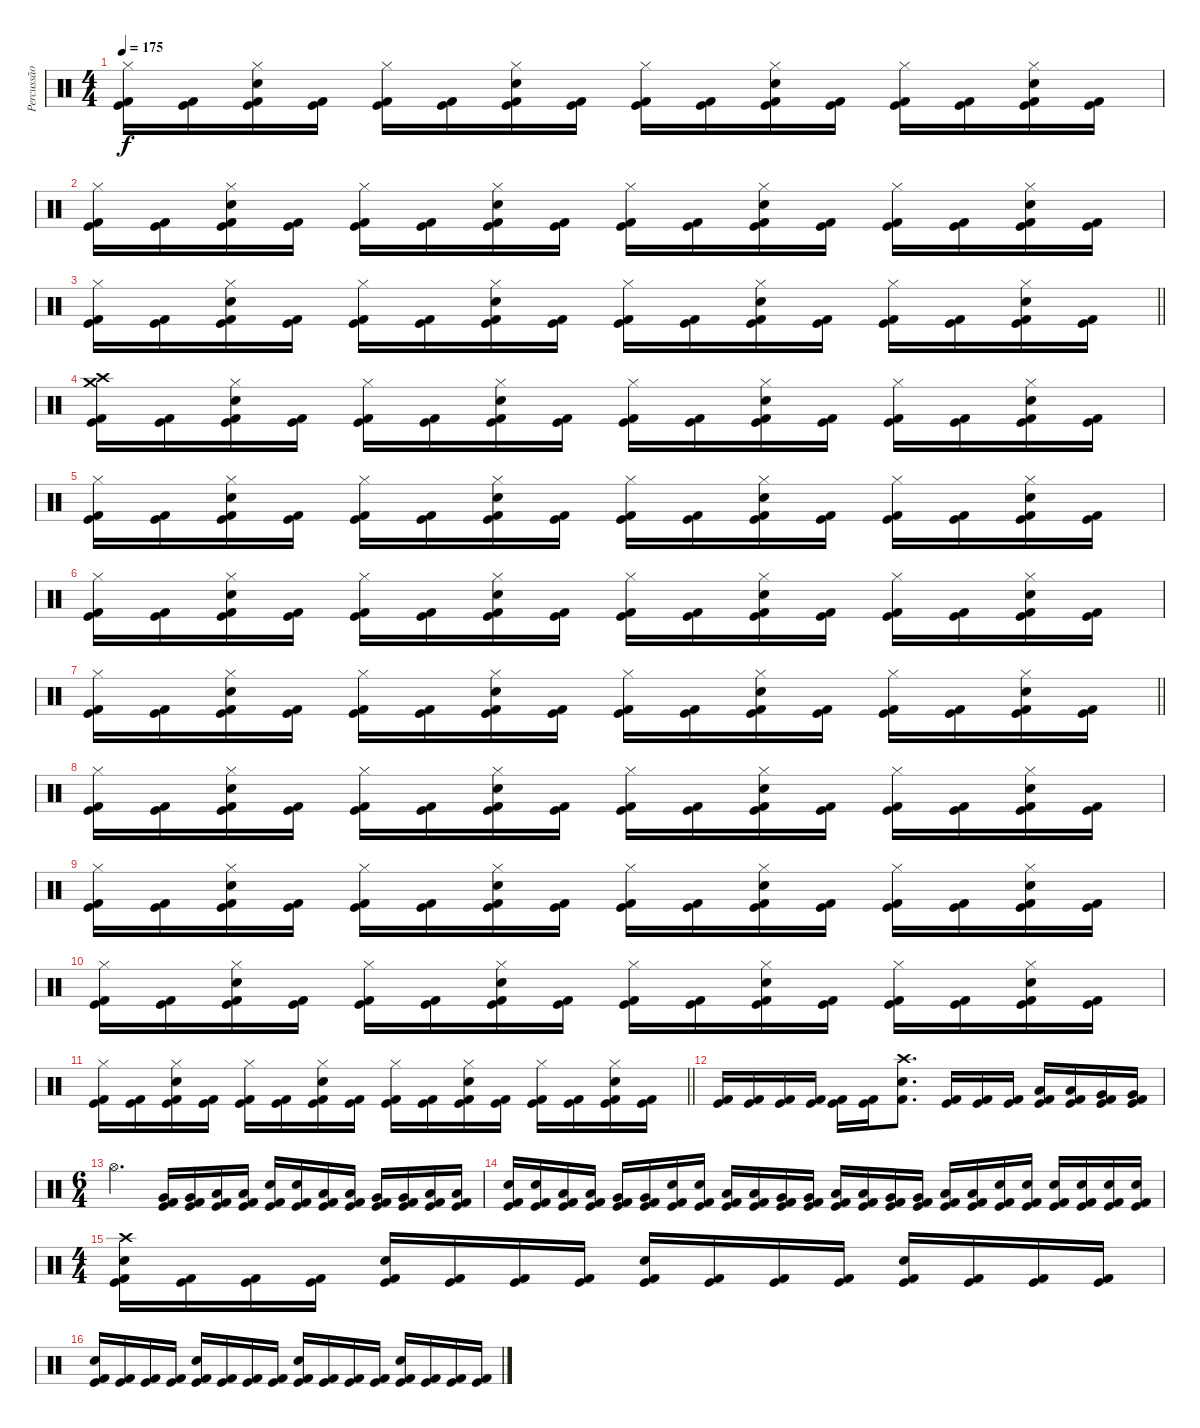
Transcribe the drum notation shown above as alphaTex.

\track ("Percussão" "Percussão") {instrument percussion}
\staff {score}
\articulation defaults
\ts (4 4)
\tempo 175
\clef neutral
\ks c
("Hi-Hat (closed)" "Kick (hit)" "Kick (hit) 2").16{dy f} ("Kick (hit)" "Kick (hit) 2").16 ("Hi-Hat (closed)" "Electric Snare (hit)" "Kick (hit)" "Kick (hit) 2").16 ("Kick (hit)" "Kick (hit) 2").16 ("Hi-Hat (closed)" "Kick (hit)" "Kick (hit) 2").16 ("Kick (hit)" "Kick (hit) 2").16 ("Hi-Hat (closed)" "Electric Snare (hit)" "Kick (hit)" "Kick (hit) 2").16 ("Kick (hit)" "Kick (hit) 2").16 ("Hi-Hat (closed)" "Kick (hit)" "Kick (hit) 2").16 ("Kick (hit)" "Kick (hit) 2").16 ("Hi-Hat (closed)" "Electric Snare (hit)" "Kick (hit)" "Kick (hit) 2").16 ("Kick (hit)" "Kick (hit) 2").16 ("Hi-Hat (closed)" "Kick (hit)" "Kick (hit) 2").16 ("Kick (hit)" "Kick (hit) 2").16 ("Hi-Hat (closed)" "Electric Snare (hit)" "Kick (hit)" "Kick (hit) 2").16 ("Kick (hit)" "Kick (hit) 2").16 |
("Hi-Hat (closed)" "Kick (hit)" "Kick (hit) 2").16 ("Kick (hit)" "Kick (hit) 2").16 ("Hi-Hat (closed)" "Electric Snare (hit)" "Kick (hit)" "Kick (hit) 2").16 ("Kick (hit)" "Kick (hit) 2").16 ("Hi-Hat (closed)" "Kick (hit)" "Kick (hit) 2").16 ("Kick (hit)" "Kick (hit) 2").16 ("Hi-Hat (closed)" "Electric Snare (hit)" "Kick (hit)" "Kick (hit) 2").16 ("Kick (hit)" "Kick (hit) 2").16 ("Hi-Hat (closed)" "Kick (hit)" "Kick (hit) 2").16 ("Kick (hit)" "Kick (hit) 2").16 ("Hi-Hat (closed)" "Electric Snare (hit)" "Kick (hit)" "Kick (hit) 2").16 ("Kick (hit)" "Kick (hit) 2").16 ("Hi-Hat (closed)" "Kick (hit)" "Kick (hit) 2").16 ("Kick (hit)" "Kick (hit) 2").16 ("Hi-Hat (closed)" "Electric Snare (hit)" "Kick (hit)" "Kick (hit) 2").16 ("Kick (hit)" "Kick (hit) 2").16 |
\barLineRight lightlight
("Hi-Hat (closed)" "Kick (hit)" "Kick (hit) 2").16 ("Kick (hit)" "Kick (hit) 2").16 ("Hi-Hat (closed)" "Electric Snare (hit)" "Kick (hit)" "Kick (hit) 2").16 ("Kick (hit)" "Kick (hit) 2").16 ("Hi-Hat (closed)" "Kick (hit)" "Kick (hit) 2").16 ("Kick (hit)" "Kick (hit) 2").16 ("Hi-Hat (closed)" "Electric Snare (hit)" "Kick (hit)" "Kick (hit) 2").16 ("Kick (hit)" "Kick (hit) 2").16 ("Hi-Hat (closed)" "Kick (hit)" "Kick (hit) 2").16 ("Kick (hit)" "Kick (hit) 2").16 ("Hi-Hat (closed)" "Electric Snare (hit)" "Kick (hit)" "Kick (hit) 2").16 ("Kick (hit)" "Kick (hit) 2").16 ("Hi-Hat (closed)" "Kick (hit)" "Kick (hit) 2").16 ("Kick (hit)" "Kick (hit) 2").16 ("Hi-Hat (closed)" "Electric Snare (hit)" "Kick (hit)" "Kick (hit) 2").16 ("Kick (hit)" "Kick (hit) 2").16 |
("Crash high (hit)" "Crash medium (hit)" "Kick (hit)" "Kick (hit) 2").16 ("Kick (hit)" "Kick (hit) 2").16 ("Hi-Hat (closed)" "Electric Snare (hit)" "Kick (hit)" "Kick (hit) 2").16 ("Kick (hit)" "Kick (hit) 2").16 ("Hi-Hat (closed)" "Kick (hit)" "Kick (hit) 2").16 ("Kick (hit)" "Kick (hit) 2").16 ("Hi-Hat (closed)" "Electric Snare (hit)" "Kick (hit)" "Kick (hit) 2").16 ("Kick (hit)" "Kick (hit) 2").16 ("Hi-Hat (closed)" "Kick (hit)" "Kick (hit) 2").16 ("Kick (hit)" "Kick (hit) 2").16 ("Hi-Hat (closed)" "Electric Snare (hit)" "Kick (hit)" "Kick (hit) 2").16 ("Kick (hit)" "Kick (hit) 2").16 ("Hi-Hat (closed)" "Kick (hit)" "Kick (hit) 2").16 ("Kick (hit)" "Kick (hit) 2").16 ("Hi-Hat (closed)" "Electric Snare (hit)" "Kick (hit)" "Kick (hit) 2").16 ("Kick (hit)" "Kick (hit) 2").16 |
("Hi-Hat (closed)" "Kick (hit)" "Kick (hit) 2").16 ("Kick (hit)" "Kick (hit) 2").16 ("Hi-Hat (closed)" "Electric Snare (hit)" "Kick (hit)" "Kick (hit) 2").16 ("Kick (hit)" "Kick (hit) 2").16 ("Hi-Hat (closed)" "Kick (hit)" "Kick (hit) 2").16 ("Kick (hit)" "Kick (hit) 2").16 ("Hi-Hat (closed)" "Electric Snare (hit)" "Kick (hit)" "Kick (hit) 2").16 ("Kick (hit)" "Kick (hit) 2").16 ("Hi-Hat (closed)" "Kick (hit)" "Kick (hit) 2").16 ("Kick (hit)" "Kick (hit) 2").16 ("Hi-Hat (closed)" "Electric Snare (hit)" "Kick (hit)" "Kick (hit) 2").16 ("Kick (hit)" "Kick (hit) 2").16 ("Hi-Hat (closed)" "Kick (hit)" "Kick (hit) 2").16 ("Kick (hit)" "Kick (hit) 2").16 ("Hi-Hat (closed)" "Electric Snare (hit)" "Kick (hit)" "Kick (hit) 2").16 ("Kick (hit)" "Kick (hit) 2").16 |
("Hi-Hat (closed)" "Kick (hit)" "Kick (hit) 2").16 ("Kick (hit)" "Kick (hit) 2").16 ("Hi-Hat (closed)" "Electric Snare (hit)" "Kick (hit)" "Kick (hit) 2").16 ("Kick (hit)" "Kick (hit) 2").16 ("Hi-Hat (closed)" "Kick (hit)" "Kick (hit) 2").16 ("Kick (hit)" "Kick (hit) 2").16 ("Hi-Hat (closed)" "Electric Snare (hit)" "Kick (hit)" "Kick (hit) 2").16 ("Kick (hit)" "Kick (hit) 2").16 ("Hi-Hat (closed)" "Kick (hit)" "Kick (hit) 2").16 ("Kick (hit)" "Kick (hit) 2").16 ("Hi-Hat (closed)" "Electric Snare (hit)" "Kick (hit)" "Kick (hit) 2").16 ("Kick (hit)" "Kick (hit) 2").16 ("Hi-Hat (closed)" "Kick (hit)" "Kick (hit) 2").16 ("Kick (hit)" "Kick (hit) 2").16 ("Hi-Hat (closed)" "Electric Snare (hit)" "Kick (hit)" "Kick (hit) 2").16 ("Kick (hit)" "Kick (hit) 2").16 |
\barLineRight lightlight
("Hi-Hat (closed)" "Kick (hit)" "Kick (hit) 2").16 ("Kick (hit)" "Kick (hit) 2").16 ("Hi-Hat (closed)" "Electric Snare (hit)" "Kick (hit)" "Kick (hit) 2").16 ("Kick (hit)" "Kick (hit) 2").16 ("Hi-Hat (closed)" "Kick (hit)" "Kick (hit) 2").16 ("Kick (hit)" "Kick (hit) 2").16 ("Hi-Hat (closed)" "Electric Snare (hit)" "Kick (hit)" "Kick (hit) 2").16 ("Kick (hit)" "Kick (hit) 2").16 ("Hi-Hat (closed)" "Kick (hit)" "Kick (hit) 2").16 ("Kick (hit)" "Kick (hit) 2").16 ("Hi-Hat (closed)" "Electric Snare (hit)" "Kick (hit)" "Kick (hit) 2").16 ("Kick (hit)" "Kick (hit) 2").16 ("Hi-Hat (closed)" "Kick (hit)" "Kick (hit) 2").16 ("Kick (hit)" "Kick (hit) 2").16 ("Hi-Hat (closed)" "Electric Snare (hit)" "Kick (hit)" "Kick (hit) 2").16 ("Kick (hit)" "Kick (hit) 2").16 |
("Hi-Hat (closed)" "Kick (hit)" "Kick (hit) 2").16 ("Kick (hit)" "Kick (hit) 2").16 ("Hi-Hat (closed)" "Electric Snare (hit)" "Kick (hit)" "Kick (hit) 2").16 ("Kick (hit)" "Kick (hit) 2").16 ("Hi-Hat (closed)" "Kick (hit)" "Kick (hit) 2").16 ("Kick (hit)" "Kick (hit) 2").16 ("Hi-Hat (closed)" "Electric Snare (hit)" "Kick (hit)" "Kick (hit) 2").16 ("Kick (hit)" "Kick (hit) 2").16 ("Hi-Hat (closed)" "Kick (hit)" "Kick (hit) 2").16 ("Kick (hit)" "Kick (hit) 2").16 ("Hi-Hat (closed)" "Electric Snare (hit)" "Kick (hit)" "Kick (hit) 2").16 ("Kick (hit)" "Kick (hit) 2").16 ("Hi-Hat (closed)" "Kick (hit)" "Kick (hit) 2").16 ("Kick (hit)" "Kick (hit) 2").16 ("Hi-Hat (closed)" "Electric Snare (hit)" "Kick (hit)" "Kick (hit) 2").16 ("Kick (hit)" "Kick (hit) 2").16 |
("Hi-Hat (closed)" "Kick (hit)" "Kick (hit) 2").16 ("Kick (hit)" "Kick (hit) 2").16 ("Hi-Hat (closed)" "Electric Snare (hit)" "Kick (hit)" "Kick (hit) 2").16 ("Kick (hit)" "Kick (hit) 2").16 ("Hi-Hat (closed)" "Kick (hit)" "Kick (hit) 2").16 ("Kick (hit)" "Kick (hit) 2").16 ("Hi-Hat (closed)" "Electric Snare (hit)" "Kick (hit)" "Kick (hit) 2").16 ("Kick (hit)" "Kick (hit) 2").16 ("Hi-Hat (closed)" "Kick (hit)" "Kick (hit) 2").16 ("Kick (hit)" "Kick (hit) 2").16 ("Hi-Hat (closed)" "Electric Snare (hit)" "Kick (hit)" "Kick (hit) 2").16 ("Kick (hit)" "Kick (hit) 2").16 ("Hi-Hat (closed)" "Kick (hit)" "Kick (hit) 2").16 ("Kick (hit)" "Kick (hit) 2").16 ("Hi-Hat (closed)" "Electric Snare (hit)" "Kick (hit)" "Kick (hit) 2").16 ("Kick (hit)" "Kick (hit) 2").16 |
("Hi-Hat (closed)" "Kick (hit)" "Kick (hit) 2").16 ("Kick (hit)" "Kick (hit) 2").16 ("Hi-Hat (closed)" "Electric Snare (hit)" "Kick (hit)" "Kick (hit) 2").16 ("Kick (hit)" "Kick (hit) 2").16 ("Hi-Hat (closed)" "Kick (hit)" "Kick (hit) 2").16 ("Kick (hit)" "Kick (hit) 2").16 ("Hi-Hat (closed)" "Electric Snare (hit)" "Kick (hit)" "Kick (hit) 2").16 ("Kick (hit)" "Kick (hit) 2").16 ("Hi-Hat (closed)" "Kick (hit)" "Kick (hit) 2").16 ("Kick (hit)" "Kick (hit) 2").16 ("Hi-Hat (closed)" "Electric Snare (hit)" "Kick (hit)" "Kick (hit) 2").16 ("Kick (hit)" "Kick (hit) 2").16 ("Hi-Hat (closed)" "Kick (hit)" "Kick (hit) 2").16 ("Kick (hit)" "Kick (hit) 2").16 ("Hi-Hat (closed)" "Electric Snare (hit)" "Kick (hit)" "Kick (hit) 2").16 ("Kick (hit)" "Kick (hit) 2").16 |
\barLineRight lightlight
("Hi-Hat (closed)" "Kick (hit)" "Kick (hit) 2").16 ("Kick (hit)" "Kick (hit) 2").16 ("Hi-Hat (closed)" "Electric Snare (hit)" "Kick (hit)" "Kick (hit) 2").16 ("Kick (hit)" "Kick (hit) 2").16 ("Hi-Hat (closed)" "Kick (hit)" "Kick (hit) 2").16 ("Kick (hit)" "Kick (hit) 2").16 ("Hi-Hat (closed)" "Electric Snare (hit)" "Kick (hit)" "Kick (hit) 2").16 ("Kick (hit)" "Kick (hit) 2").16 ("Hi-Hat (closed)" "Kick (hit)" "Kick (hit) 2").16 ("Kick (hit)" "Kick (hit) 2").16 ("Hi-Hat (closed)" "Electric Snare (hit)" "Kick (hit)" "Kick (hit) 2").16 ("Kick (hit)" "Kick (hit) 2").16 ("Hi-Hat (closed)" "Kick (hit)" "Kick (hit) 2").16 ("Kick (hit)" "Kick (hit) 2").16 ("Hi-Hat (closed)" "Electric Snare (hit)" "Kick (hit)" "Kick (hit) 2").16 ("Kick (hit)" "Kick (hit) 2").16 |
("Kick (hit) 2" "Kick (hit)").16 ("Kick (hit) 2" "Kick (hit)").16 ("Kick (hit) 2" "Kick (hit)").16 ("Kick (hit) 2" "Kick (hit)").16 ("Kick (hit) 2" "Kick (hit)").16 ("Kick (hit) 2" "Kick (hit)").16 ("Electric Snare (hit)" "Kick (hit) 2" "Crash high (hit)").8{d} ("Kick (hit) 2" "Kick (hit)").16 ("Kick (hit) 2" "Kick (hit)").16 ("Kick (hit) 2" "Kick (hit)").16 ("Low Tom (hit)" "Kick (hit) 2" "Kick (hit)").16 ("Low Tom (hit)" "Kick (hit) 2" "Kick (hit)").16 ("Very Low Tom (hit)" "Kick (hit) 2" "Kick (hit)").16 ("Very Low Tom (hit)" "Kick (hit) 2" "Kick (hit)").16 |
\ts (6 4)
"Hi-Hat (open)".2{d} ("Very Low Tom (hit)" "Kick (hit) 2" "Kick (hit)").16 ("Very Low Tom (hit)" "Kick (hit) 2" "Kick (hit)").16 ("Low Tom (hit)" "Kick (hit) 2" "Kick (hit)").16 ("Low Tom (hit)" "Kick (hit) 2" "Kick (hit)").16 ("Electric Snare (hit)" "Kick (hit) 2" "Kick (hit)").16 ("Electric Snare (hit)" "Kick (hit) 2" "Kick (hit)").16 ("Low Tom (hit)" "Kick (hit) 2" "Kick (hit)").16 ("Low Tom (hit)" "Kick (hit) 2" "Kick (hit)").16 ("Very Low Tom (hit)" "Kick (hit) 2" "Kick (hit)").16 ("Very Low Tom (hit)" "Kick (hit) 2" "Kick (hit)").16 ("Low Tom (hit)" "Kick (hit) 2" "Kick (hit)").16 ("Low Tom (hit)" "Kick (hit) 2" "Kick (hit)").16 |
("Electric Snare (hit)" "Kick (hit)" "Kick (hit) 2").16 ("Electric Snare (hit)" "Kick (hit)" "Kick (hit) 2").16 ("Low Tom (hit)" "Kick (hit)" "Kick (hit) 2").16 ("Low Tom (hit)" "Kick (hit)" "Kick (hit) 2").16 ("Very Low Tom (hit)" "Kick (hit)" "Kick (hit) 2").16 ("Very Low Tom (hit)" "Kick (hit)" "Kick (hit) 2").16 ("Electric Snare (hit)" "Kick (hit)" "Kick (hit) 2").16 ("Electric Snare (hit)" "Kick (hit)" "Kick (hit) 2").16 ("Low Tom (hit)" "Kick (hit)" "Kick (hit) 2").16 ("Low Tom (hit)" "Kick (hit)" "Kick (hit) 2").16 ("Very Low Tom (hit)" "Kick (hit)" "Kick (hit) 2").16 ("Very Low Tom (hit)" "Kick (hit)" "Kick (hit) 2").16 ("Low Tom (hit)" "Kick (hit)" "Kick (hit) 2").16 ("Low Tom (hit)" "Kick (hit)" "Kick (hit) 2").16 ("Very Low Tom (hit)" "Kick (hit)" "Kick (hit) 2").16 ("Very Low Tom (hit)" "Kick (hit)" "Kick (hit) 2").16 ("Low Tom (hit)" "Kick (hit)" "Kick (hit) 2").16 ("Low Tom (hit)" "Kick (hit)" "Kick (hit) 2").16 ("Electric Snare (hit)" "Kick (hit)" "Kick (hit) 2").16 ("Electric Snare (hit)" "Kick (hit)" "Kick (hit) 2").16 ("Electric Snare (hit)" "Kick (hit)" "Kick (hit) 2").16 ("Electric Snare (hit)" "Kick (hit)" "Kick (hit) 2").16 ("Electric Snare (hit)" "Kick (hit)" "Kick (hit) 2").16 ("Electric Snare (hit)" "Kick (hit)" "Kick (hit) 2").16 |
\ts (4 4)
("Crash high (hit)" "Electric Snare (hit)" "Kick (hit)" "Kick (hit) 2").16 ("Kick (hit)" "Kick (hit) 2").16 ("Kick (hit)" "Kick (hit) 2").16 ("Kick (hit)" "Kick (hit) 2").16 ("Electric Snare (hit)" "Kick (hit)" "Kick (hit) 2").16 ("Kick (hit)" "Kick (hit) 2").16 ("Kick (hit)" "Kick (hit) 2").16 ("Kick (hit)" "Kick (hit) 2").16 ("Electric Snare (hit)" "Kick (hit)" "Kick (hit) 2").16 ("Kick (hit)" "Kick (hit) 2").16 ("Kick (hit)" "Kick (hit) 2").16 ("Kick (hit)" "Kick (hit) 2").16 ("Electric Snare (hit)" "Kick (hit)" "Kick (hit) 2").16 ("Kick (hit)" "Kick (hit) 2").16 ("Kick (hit)" "Kick (hit) 2").16 ("Kick (hit)" "Kick (hit) 2").16 |
("Electric Snare (hit)" "Kick (hit)" "Kick (hit) 2").16 ("Kick (hit)" "Kick (hit) 2").16 ("Kick (hit)" "Kick (hit) 2").16 ("Kick (hit)" "Kick (hit) 2").16 ("Electric Snare (hit)" "Kick (hit)" "Kick (hit) 2").16 ("Kick (hit)" "Kick (hit) 2").16 ("Kick (hit)" "Kick (hit) 2").16 ("Kick (hit)" "Kick (hit) 2").16 ("Electric Snare (hit)" "Kick (hit)" "Kick (hit) 2").16 ("Kick (hit)" "Kick (hit) 2").16 ("Kick (hit)" "Kick (hit) 2").16 ("Kick (hit)" "Kick (hit) 2").16 ("Electric Snare (hit)" "Kick (hit)" "Kick (hit) 2").16 ("Kick (hit)" "Kick (hit) 2").16 ("Kick (hit)" "Kick (hit) 2").16 ("Kick (hit)" "Kick (hit) 2").16
